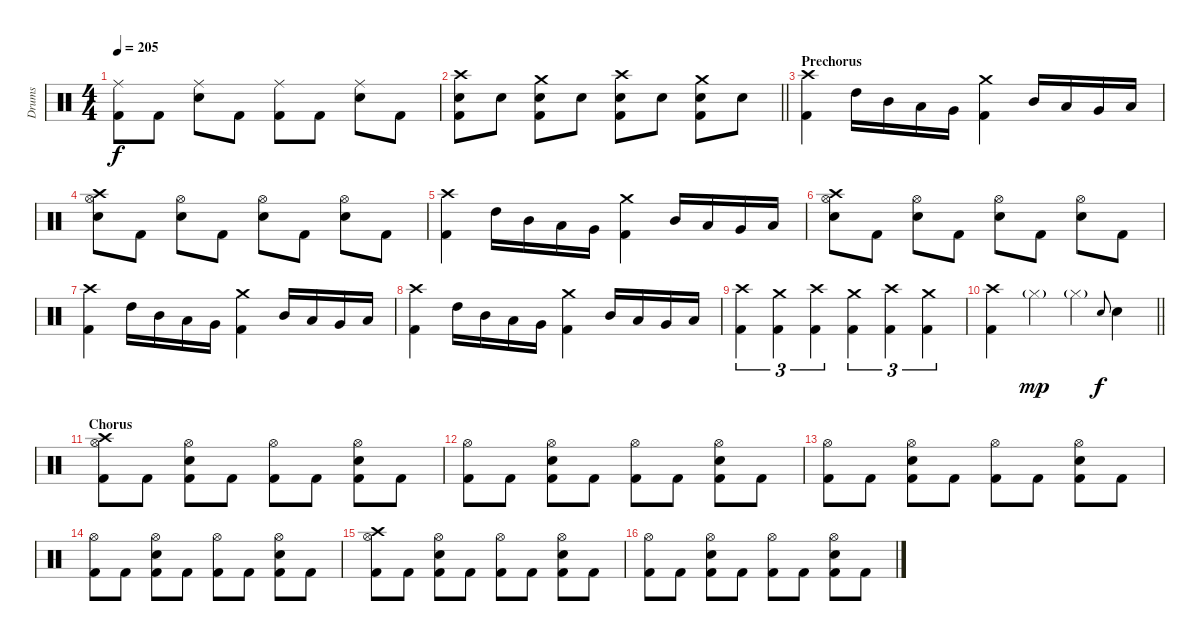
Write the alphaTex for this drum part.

\track ("Drums" "Drums") {instrument percussion}
\staff {score}
\articulation defaults
\ts (4 4)
\tempo 205
\clef neutral
\ks c
("Ride (middle)" "Kick (hit) 2").8{dy f} "Kick (hit) 2".8 ("Ride (middle)" "Snare (hit) 2").8 "Kick (hit) 2".8 ("Ride (middle)" "Kick (hit) 2").8 "Kick (hit) 2".8 ("Ride (middle)" "Snare (hit) 2").8 "Kick (hit) 2".8 |
\barLineRight lightlight
("Crash high (hit)" "Snare (hit) 2" "Kick (hit) 2").8 "Snare (hit) 2".8 ("Crash medium (hit)" "Snare (hit) 2" "Kick (hit) 2").8 "Snare (hit) 2".8 ("Crash high (hit)" "Snare (hit) 2" "Kick (hit) 2").8 "Snare (hit) 2".8 ("Crash medium (hit)" "Snare (hit) 2" "Kick (hit) 2").8 "Snare (hit) 2".8 |
\section ("" "Prechorus")
("Crash high (hit)" "Kick (hit) 2").4 "High Tom (hit)".16 "Mid Tom (hit)".16 "Low Tom (hit)".16 "Very Low Tom (hit)".16 ("Crash medium (hit)" "Kick (hit) 2").4 "Mid Tom (hit)".16 "Low Tom (hit)".16 "Very Low Tom (hit)".16 "Low Floor Tom (hit)".16 |
("Crash high (hit)" "Hi-Hat (open)" "Snare (hit) 2").8 "Kick (hit) 2".8 ("Hi-Hat (open)" "Snare (hit) 2").8 "Kick (hit) 2".8 ("Hi-Hat (open)" "Snare (hit) 2").8 "Kick (hit) 2".8 ("Hi-Hat (open)" "Snare (hit) 2").8 "Kick (hit) 2".8 |
("Crash high (hit)" "Kick (hit) 2").4 "High Tom (hit)".16 "Mid Tom (hit)".16 "Low Tom (hit)".16 "Very Low Tom (hit)".16 ("Crash medium (hit)" "Kick (hit) 2").4 "Mid Tom (hit)".16 "Low Tom (hit)".16 "Very Low Tom (hit)".16 "Low Floor Tom (hit)".16 |
("Crash high (hit)" "Hi-Hat (open)" "Snare (hit) 2").8 "Kick (hit) 2".8 ("Hi-Hat (open)" "Snare (hit) 2").8 "Kick (hit) 2".8 ("Hi-Hat (open)" "Snare (hit) 2").8 "Kick (hit) 2".8 ("Hi-Hat (open)" "Snare (hit) 2").8 "Kick (hit) 2".8 |
("Crash high (hit)" "Kick (hit) 2").4 "High Tom (hit)".16 "Mid Tom (hit)".16 "Low Tom (hit)".16 "Very Low Tom (hit)".16 ("Crash medium (hit)" "Kick (hit) 2").4 "Mid Tom (hit)".16 "Low Tom (hit)".16 "Very Low Tom (hit)".16 "Low Floor Tom (hit)".16 |
("Crash high (hit)" "Kick (hit) 2").4 "High Tom (hit)".16 "Mid Tom (hit)".16 "Low Tom (hit)".16 "Very Low Tom (hit)".16 ("Crash medium (hit)" "Kick (hit) 2").4 "Mid Tom (hit)".16 "Low Tom (hit)".16 "Very Low Tom (hit)".16 "Low Floor Tom (hit)".16 |
("Crash high (hit)" "Kick (hit) 2").4{tu (3 2)} ("Crash medium (hit)" "Kick (hit) 2").4{tu (3 2)} ("Crash high (hit)" "Kick (hit) 2").4{tu (3 2)} ("Crash medium (hit)" "Kick (hit) 2").4{tu (3 2)} ("Crash high (hit)" "Kick (hit) 2").4{tu (3 2)} ("Crash medium (hit)" "Kick (hit) 2").4{tu (3 2)} |
\barLineRight lightlight
("Crash high (hit)" "Kick (hit) 2").4 "Hi-Hat (closed)"{g}.4{dy mp} "Hi-Hat (closed)"{g}.4 "Snare (hit) 2".8{gr onbeat dy f} "Snare (hit) 2".4 |
\section ("" "Chorus")
("Crash high (hit)" "Hi-Hat (open)" "Kick (hit) 2").8 "Kick (hit) 2".8 ("Hi-Hat (open)" "Snare (hit) 2" "Kick (hit) 2").8 "Kick (hit) 2".8 ("Hi-Hat (open)" "Kick (hit) 2").8 "Kick (hit) 2".8 ("Hi-Hat (open)" "Snare (hit) 2" "Kick (hit) 2").8 "Kick (hit) 2".8 |
("Hi-Hat (open)" "Kick (hit) 2").8 "Kick (hit) 2".8 ("Hi-Hat (open)" "Snare (hit) 2" "Kick (hit) 2").8 "Kick (hit) 2".8 ("Hi-Hat (open)" "Kick (hit) 2").8 "Kick (hit) 2".8 ("Hi-Hat (open)" "Snare (hit) 2" "Kick (hit) 2").8 "Kick (hit) 2".8 |
("Hi-Hat (open)" "Kick (hit) 2").8 "Kick (hit) 2".8 ("Hi-Hat (open)" "Snare (hit) 2" "Kick (hit) 2").8 "Kick (hit) 2".8 ("Hi-Hat (open)" "Kick (hit) 2").8 "Kick (hit) 2".8 ("Hi-Hat (open)" "Snare (hit) 2" "Kick (hit) 2").8 "Kick (hit) 2".8 |
("Hi-Hat (open)" "Kick (hit) 2").8 "Kick (hit) 2".8 ("Hi-Hat (open)" "Snare (hit) 2" "Kick (hit) 2").8 "Kick (hit) 2".8 ("Hi-Hat (open)" "Kick (hit) 2").8 "Kick (hit) 2".8 ("Hi-Hat (open)" "Snare (hit) 2" "Kick (hit) 2").8 "Kick (hit) 2".8 |
("Crash high (hit)" "Hi-Hat (open)" "Kick (hit) 2").8 "Kick (hit) 2".8 ("Hi-Hat (open)" "Snare (hit) 2" "Kick (hit) 2").8 "Kick (hit) 2".8 ("Hi-Hat (open)" "Kick (hit) 2").8 "Kick (hit) 2".8 ("Hi-Hat (open)" "Snare (hit) 2" "Kick (hit) 2").8 "Kick (hit) 2".8 |
("Hi-Hat (open)" "Kick (hit) 2").8 "Kick (hit) 2".8 ("Hi-Hat (open)" "Snare (hit) 2" "Kick (hit) 2").8 "Kick (hit) 2".8 ("Hi-Hat (open)" "Kick (hit) 2").8 "Kick (hit) 2".8 ("Hi-Hat (open)" "Snare (hit) 2" "Kick (hit) 2").8 "Kick (hit) 2".8
